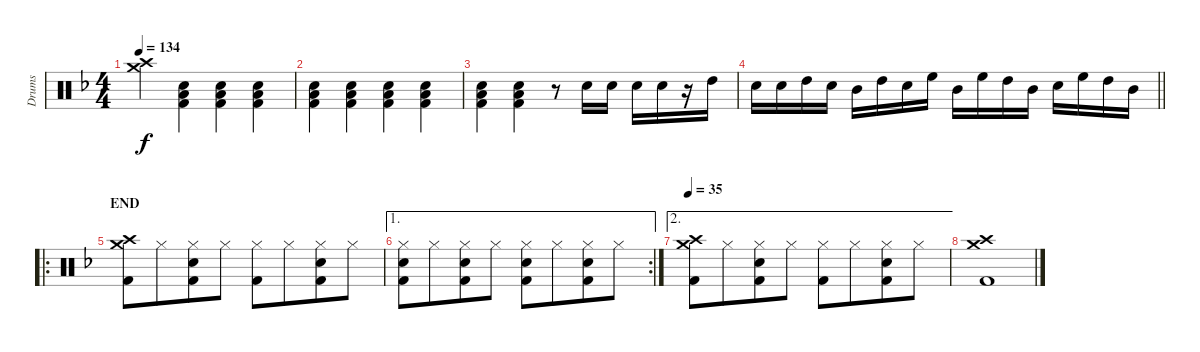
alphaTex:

\track ("Drums" "Drums") {instrument percussion}
\staff {score}
\articulation defaults
\ts (4 4)
\tempo 134
\clef neutral
\ks f
("Crash medium (hit)" "Crash high (hit)").4{dy f} ("Low Tom (hit)" "Kick (hit) 2" "Snare (hit) 2").4 ("Low Tom (hit)" "Kick (hit) 2" "Snare (hit) 2").4 ("Low Tom (hit)" "Kick (hit) 2" "Snare (hit) 2").4 |
("Low Tom (hit)" "Kick (hit) 2" "Snare (hit) 2").4 ("Low Tom (hit)" "Kick (hit) 2" "Snare (hit) 2").4 ("Low Tom (hit)" "Kick (hit) 2" "Snare (hit) 2").4 ("Low Tom (hit)" "Kick (hit) 2" "Snare (hit) 2").4 |
("Low Tom (hit)" "Snare (hit) 2" "Kick (hit) 2").4 ("Low Tom (hit)" "Snare (hit) 2" "Kick (hit) 2").4 r.8 "Snare (hit) 2".16 "Snare (hit) 2".16 "Snare (hit) 2".16 "Snare (hit) 2".16 r.16 "High Tom (hit)".16 |
\barLineRight lightlight "Snare (hit) 2".16 "Snare (hit) 2".16 "High Tom (hit)".16 "Snare (hit) 2".16 "Mid Tom (hit)".16 "High Tom (hit)".16 "Snare (hit) 2".16 "High Floor Tom (hit)".16 "Mid Tom (hit)".16 "High Floor Tom (hit)".16 "High Tom (hit)".16 "Mid Tom (hit)".16 "Snare (hit) 2".16 "High Floor Tom (hit)".16 "High Tom (hit)".16 "Mid Tom (hit)".16
|
\ro
\section ("" "END")
("Kick (hit) 2" "Crash medium (hit)" "Crash high (hit)").8 "Hi-Hat (closed)".8{beam merge} ("Hi-Hat (closed)" "Kick (hit) 2" "Snare (hit) 2").8 "Hi-Hat (closed)".8 ("Hi-Hat (closed)" "Kick (hit) 2").8 "Hi-Hat (closed)".8{beam merge} ("Hi-Hat (closed)" "Kick (hit) 2" "Snare (hit) 2").8 "Hi-Hat (closed)".8 |
\ae 1
\rc 2
("Hi-Hat (closed)" "Kick (hit) 2" "Snare (hit) 2").8 "Hi-Hat (closed)".8{beam merge} ("Hi-Hat (closed)" "Kick (hit) 2" "Snare (hit) 2").8 "Hi-Hat (closed)".8 ("Hi-Hat (closed)" "Kick (hit) 2" "Snare (hit) 2").8 "Hi-Hat (closed)".8{beam merge} ("Hi-Hat (closed)" "Kick (hit) 2" "Snare (hit) 2").8 "Hi-Hat (closed)".8 |
\ae 2
\tempo 35
("Crash medium (hit)" "Kick (hit) 2" "Crash high (hit)").8 "Hi-Hat (closed)".8{beam merge} ("Hi-Hat (closed)" "Kick (hit) 2" "Snare (hit) 2").8 "Hi-Hat (closed)".8 ("Hi-Hat (closed)" "Kick (hit) 2").8 "Hi-Hat (closed)".8{beam merge} ("Hi-Hat (closed)" "Kick (hit) 2" "Snare (hit) 2").8 "Hi-Hat (closed)".8 |
("Crash medium (hit)" "Kick (hit) 2" "Crash high (hit)").1
